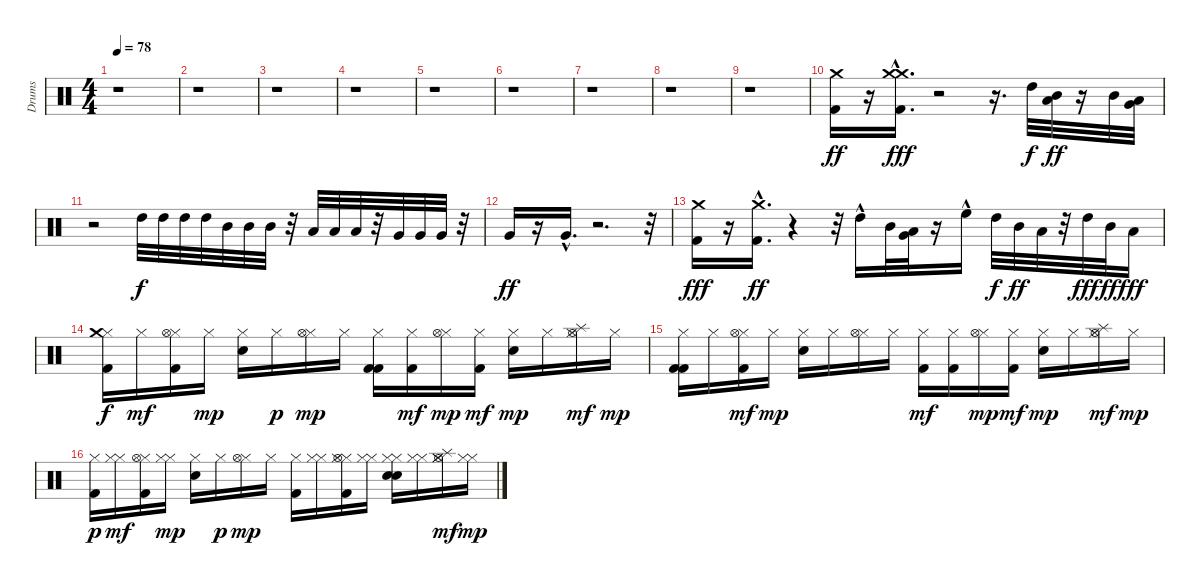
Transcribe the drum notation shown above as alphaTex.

\track ("Drums" "Drums") {instrument percussion}
\staff {score}
\articulation defaults
\ts (4 4)
\tempo 78
\clef neutral
\ks c
r.1{dy ff} |
r.1 |
r.1 |
r.1 |
r.1 |
r.1 |
r.1 |
r.1 |
r.1 |
("Crash medium (hit)" "Kick (hit) 2").16 r.16 ("Crash medium (hit)"{hac} "Kick (hit) 2"{hac} "Crash medium (hit)"{hac}).16{d dy fff} r.2 r.16{d} "High Tom (hit)".32{dy f} ("Mid Tom (hit)" "Low Tom (hit)").32{dy ff} r.16 "Mid Tom (hit)".32 ("Low Tom (hit)" "Very Low Tom (hit)").32 |
r.2 "High Tom (hit)".32{dy f} "High Tom (hit)".32 "High Tom (hit)".32 "High Tom (hit)".32 "Mid Tom (hit)".32 "Mid Tom (hit)".32 "Mid Tom (hit)".32 r.32 "Low Tom (hit)".32 "Low Tom (hit)".32 "Low Tom (hit)".32 r.32 "Very Low Tom (hit)".32 "Very Low Tom (hit)".32 "Very Low Tom (hit)".32 r.32 |
"Very Low Tom (hit)".16{dy ff} r.16 "Very Low Tom (hit)"{hac}.16{d} r.2{d} r.32 |
("Kick (hit) 2" "Crash medium (hit)").16{dy fff} r.16 ("Kick (hit) 2" "Crash medium (hit)"{hac}).16{d dy ff} r.4 r.32 "High Tom (hit)"{hac}.16 "Mid Tom (hit)".32 ("Low Tom (hit)" "Very Low Tom (hit)").32 r.16 "High Floor Tom (hit)"{hac}.16 "High Tom (hit)".32{dy f} "Mid Tom (hit)".32{dy ff} "Low Tom (hit)".32 r.32 "High Tom (hit)".32{dy fff} "Mid Tom (hit)".32{dy ff} "Low Tom (hit)".16{dy fff} |
("Kick (hit) 2" "Hi-Hat (closed)" "Crash medium (hit)").16{dy f} "Hi-Hat (closed)".16{dy mf} ("Hi-Hat (closed)" "Kick (hit) 2" "Hi-Hat (open)").16 "Hi-Hat (closed)".16{dy mp} ("Snare (hit) 2" "Hi-Hat (closed)").16 "Hi-Hat (closed)".16{dy p} ("Hi-Hat (closed)" "Hi-Hat (open)").16{dy mp} "Hi-Hat (closed)".16 ("Kick (hit) 2" "Hi-Hat (closed)" "Kick (hit) 2").16 ("Hi-Hat (closed)" "Kick (hit) 2").16{dy mf} ("Hi-Hat (closed)" "Hi-Hat (open)").16{dy mp} ("Hi-Hat (closed)" "Kick (hit) 2").16{dy mf} ("Snare (hit) 2" "Hi-Hat (closed)").16{dy mp} "Hi-Hat (closed)".16 ("Hi-Hat (closed)" "Hi-Hat (open)" "Splash (hit)").16{dy mf} "Hi-Hat (closed)".16{dy mp} |
("Kick (hit) 2" "Hi-Hat (closed)" "Kick (hit) 2").16 "Hi-Hat (closed)".16 ("Hi-Hat (closed)" "Kick (hit) 2" "Hi-Hat (open)").16{dy mf} "Hi-Hat (closed)".16{dy mp} ("Snare (hit) 2" "Hi-Hat (closed)").16 "Hi-Hat (closed)".16 ("Hi-Hat (closed)" "Hi-Hat (open)").16 "Hi-Hat (closed)".16 ("Kick (hit) 2" "Hi-Hat (closed)").16{dy mf} ("Hi-Hat (closed)" "Kick (hit) 2").16 ("Hi-Hat (closed)" "Hi-Hat (open)").16{dy mp} ("Hi-Hat (closed)" "Kick (hit) 2").16{dy mf} ("Snare (hit) 2" "Hi-Hat (closed)").16{dy mp} "Hi-Hat (closed)".16 ("Hi-Hat (closed)" "Hi-Hat (open)" "Splash (hit)").16{dy mf} "Hi-Hat (closed)".16{dy mp} |
("Hi-Hat (closed)" "Kick (hit) 2").16{dy p} ("Hi-Hat (closed)" "Hi-Hat (closed)").16{dy mf} ("Hi-Hat (closed)" "Kick (hit) 2" "Hi-Hat (open)").16 ("Hi-Hat (closed)" "Hi-Hat (closed)").16{dy mp} ("Snare (hit) 2" "Hi-Hat (closed)").16 "Hi-Hat (closed)".16{dy p} ("Hi-Hat (closed)" "Hi-Hat (open)").16{dy mp} "Hi-Hat (closed)".16 ("Kick (hit) 2" "Hi-Hat (closed)").16 ("Hi-Hat (closed)" "Hi-Hat (closed)").16 ("Kick (hit) 2" "Hi-Hat (closed)" "Hi-Hat (closed)" "Hi-Hat (open)").16 ("Hi-Hat (closed)" "Hi-Hat (closed)").16 ("Snare (hit) 2" "Hi-Hat (closed)" "Snare (hit) 2" "Hi-Hat (closed)").16 ("Hi-Hat (closed)" "Hi-Hat (closed)").16 ("Hi-Hat (closed)" "Hi-Hat (closed)" "Hi-Hat (open)" "Splash (hit)").16{dy mf} ("Hi-Hat (closed)" "Hi-Hat (closed)").16{dy mp}
